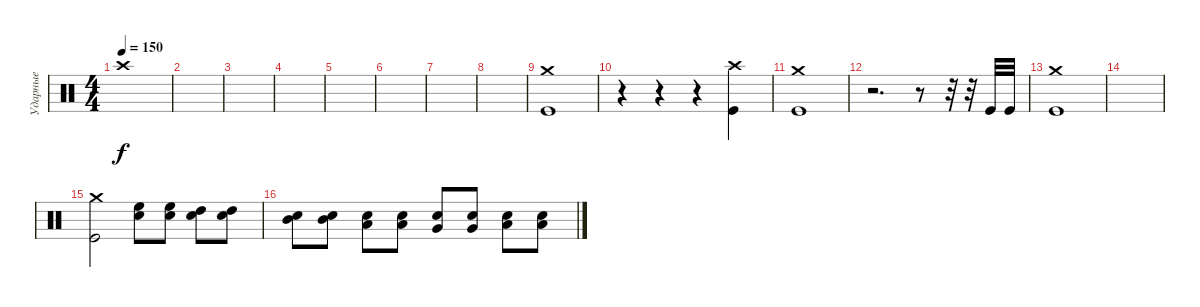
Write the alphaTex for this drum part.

\track ("Ударные" "Ударные") {instrument percussion}
\staff {score}
\articulation defaults
\ts (4 4)
\tempo 150
\clef neutral
\ks c "Crash high (hit)".1{dy f}
|
|
|
|
|
|
|
|
("Crash medium (hit)" "Kick (hit)").1 |
r.4 r.4 r.4 ("Crash high (hit)" "Kick (hit)").4 |
("Crash medium (hit)" "Kick (hit)").1 |
r.2{d} r.8 r.32 r.32 "Kick (hit)".32 "Kick (hit)".32 |
("Crash medium (hit)" "Kick (hit)").1 |
|
("Crash medium (hit)" "Kick (hit)").2 ("High Floor Tom (hit)" "Snare (hit) 2").8 ("High Floor Tom (hit)" "Snare (hit) 2").8 ("High Tom (hit)" "Snare (hit) 2").8 ("High Tom (hit)" "Snare (hit) 2").8 |
("Mid Tom (hit)" "Snare (hit) 2").8 ("Mid Tom (hit)" "Snare (hit) 2").8 ("Low Tom (hit)" "Snare (hit) 2").8 ("Low Tom (hit)" "Snare (hit) 2").8 ("Very Low Tom (hit)" "Snare (hit) 2").8 ("Very Low Tom (hit)" "Snare (hit) 2").8 ("Low Floor Tom (hit)" "Snare (hit) 2").8 ("Low Floor Tom (hit)" "Snare (hit) 2").8
